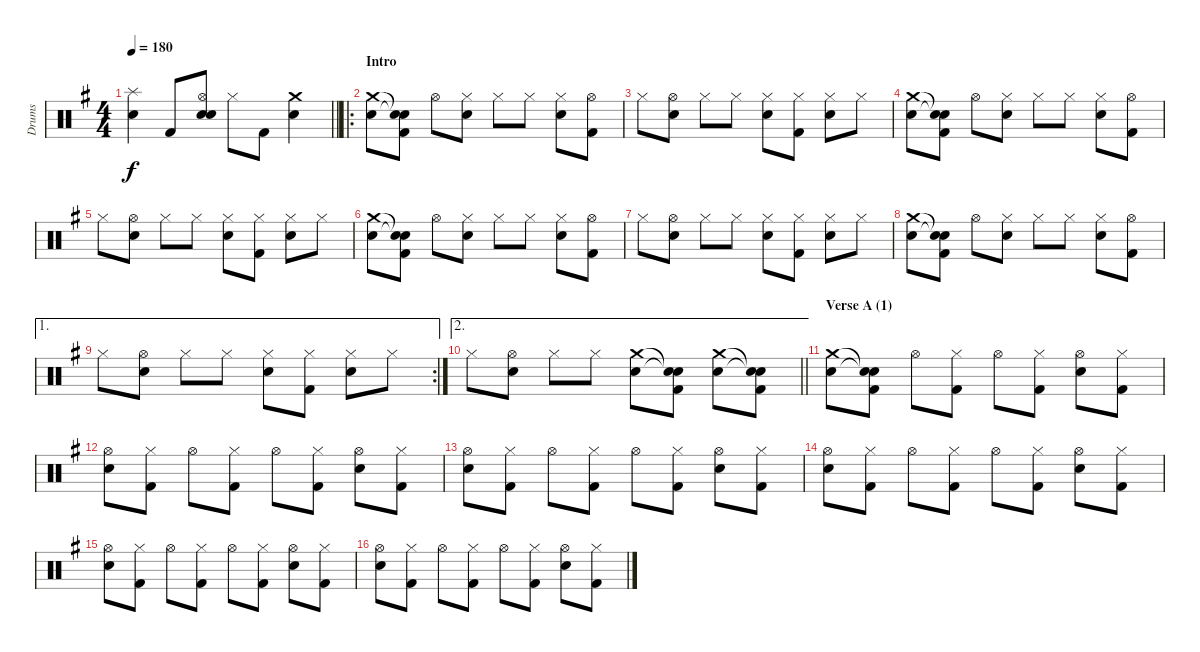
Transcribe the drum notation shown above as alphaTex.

\track ("Drums" "Drums") {instrument percussion}
\staff {score}
\articulation defaults
\ts (4 4)
\tempo 180
\clef neutral
\barLineRight lightlight
\ks g
("Splash (hit)" "Electric Snare (hit)").4{dy f} "Kick (hit) 2".8 ("Hi-Hat (open)" "Electric Snare (hit)" "Snare (hit)").8 "Hi-Hat (closed)".8 "Kick (hit) 2".8 ("Crash medium (hit)" "Electric Snare (hit)").4 |
\ro
\section ("" "Intro")
("Crash medium (hit)" "Electric Snare (hit)").8 ("Snare (hit)"{t} "Snare (hit)"{t} "Kick (hit) 2").8 "Hi-Hat (open)".8 ("Hi-Hat (closed)" "Electric Snare (hit)").8 "Hi-Hat (closed)".8 "Hi-Hat (closed)".8 ("Hi-Hat (closed)" "Electric Snare (hit)").8 ("Hi-Hat (open)" "Kick (hit) 2").8 |
"Hi-Hat (closed)".8 ("Hi-Hat (open)" "Electric Snare (hit)").8 "Hi-Hat (closed)".8 "Hi-Hat (closed)".8 ("Hi-Hat (closed)" "Electric Snare (hit)").8 ("Hi-Hat (closed)" "Kick (hit) 2").8 ("Hi-Hat (closed)" "Electric Snare (hit)").8 "Hi-Hat (closed)".8 |
("Crash medium (hit)" "Electric Snare (hit)").8 ("Snare (hit)"{t} "Snare (hit)"{t} "Kick (hit) 2").8 "Hi-Hat (open)".8 ("Hi-Hat (closed)" "Electric Snare (hit)").8 "Hi-Hat (closed)".8 "Hi-Hat (closed)".8 ("Hi-Hat (closed)" "Electric Snare (hit)").8 ("Hi-Hat (open)" "Kick (hit) 2").8 |
"Hi-Hat (closed)".8 ("Hi-Hat (open)" "Electric Snare (hit)").8 "Hi-Hat (closed)".8 "Hi-Hat (closed)".8 ("Hi-Hat (closed)" "Electric Snare (hit)").8 ("Hi-Hat (closed)" "Kick (hit) 2").8 ("Hi-Hat (closed)" "Electric Snare (hit)").8 "Hi-Hat (closed)".8 |
("Crash medium (hit)" "Electric Snare (hit)").8 ("Snare (hit)"{t} "Snare (hit)"{t} "Kick (hit) 2").8 "Hi-Hat (open)".8 ("Hi-Hat (closed)" "Electric Snare (hit)").8 "Hi-Hat (closed)".8 "Hi-Hat (closed)".8 ("Hi-Hat (closed)" "Electric Snare (hit)").8 ("Hi-Hat (open)" "Kick (hit) 2").8 |
"Hi-Hat (closed)".8 ("Hi-Hat (open)" "Electric Snare (hit)").8 "Hi-Hat (closed)".8 "Hi-Hat (closed)".8 ("Hi-Hat (closed)" "Electric Snare (hit)").8 ("Hi-Hat (closed)" "Kick (hit) 2").8 ("Hi-Hat (closed)" "Electric Snare (hit)").8 "Hi-Hat (closed)".8 |
("Crash medium (hit)" "Electric Snare (hit)").8 ("Snare (hit)"{t} "Snare (hit)"{t} "Kick (hit) 2").8 "Hi-Hat (open)".8 ("Hi-Hat (closed)" "Electric Snare (hit)").8 "Hi-Hat (closed)".8 "Hi-Hat (closed)".8 ("Hi-Hat (closed)" "Electric Snare (hit)").8 ("Hi-Hat (open)" "Kick (hit) 2").8 |
\ae 1
\rc 2 "Hi-Hat (closed)".8
("Hi-Hat (open)" "Electric Snare (hit)").8 "Hi-Hat (closed)".8 "Hi-Hat (closed)".8 ("Hi-Hat (closed)" "Electric Snare (hit)").8 ("Hi-Hat (closed)" "Kick (hit) 2").8 ("Hi-Hat (closed)" "Electric Snare (hit)").8 "Hi-Hat (closed)".8 |
\ae 2
\barLineRight lightlight "Hi-Hat (closed)".8
("Hi-Hat (open)" "Electric Snare (hit)").8 "Hi-Hat (closed)".8 "Hi-Hat (closed)".8 ("Crash medium (hit)" "Electric Snare (hit)").8 ("Snare (hit)"{t} "Snare (hit)"{t} "Kick (hit) 2").8 ("Crash medium (hit)" "Electric Snare (hit)").8 ("Snare (hit)"{t} "Snare (hit)"{t} "Kick (hit) 2").8 |
\section ("" "Verse A (1)")
("Crash medium (hit)" "Electric Snare (hit)").8 ("Snare (hit)"{t} "Snare (hit)"{t} "Kick (hit) 2").8 "Hi-Hat (open)".8 ("Hi-Hat (closed)" "Kick (hit) 2").8 "Hi-Hat (open)".8 ("Hi-Hat (closed)" "Kick (hit) 2").8 ("Hi-Hat (open)" "Electric Snare (hit)").8 ("Hi-Hat (closed)" "Kick (hit) 2").8 |
("Hi-Hat (open)" "Electric Snare (hit)").8 ("Hi-Hat (closed)" "Kick (hit) 2").8 "Hi-Hat (open)".8 ("Hi-Hat (closed)" "Kick (hit) 2").8 "Hi-Hat (open)".8 ("Hi-Hat (closed)" "Kick (hit) 2").8 ("Hi-Hat (open)" "Electric Snare (hit)").8 ("Hi-Hat (closed)" "Kick (hit) 2").8 |
("Hi-Hat (open)" "Electric Snare (hit)").8 ("Hi-Hat (closed)" "Kick (hit) 2").8 "Hi-Hat (open)".8 ("Hi-Hat (closed)" "Kick (hit) 2").8 "Hi-Hat (open)".8 ("Hi-Hat (closed)" "Kick (hit) 2").8 ("Hi-Hat (open)" "Electric Snare (hit)").8 ("Hi-Hat (closed)" "Kick (hit) 2").8 |
("Hi-Hat (open)" "Electric Snare (hit)").8 ("Hi-Hat (closed)" "Kick (hit) 2").8 "Hi-Hat (open)".8 ("Hi-Hat (closed)" "Kick (hit) 2").8 "Hi-Hat (open)".8 ("Hi-Hat (closed)" "Kick (hit) 2").8 ("Hi-Hat (open)" "Electric Snare (hit)").8 ("Hi-Hat (closed)" "Kick (hit) 2").8 |
("Hi-Hat (open)" "Electric Snare (hit)").8 ("Hi-Hat (closed)" "Kick (hit) 2").8 "Hi-Hat (open)".8 ("Hi-Hat (closed)" "Kick (hit) 2").8 "Hi-Hat (open)".8 ("Hi-Hat (closed)" "Kick (hit) 2").8 ("Hi-Hat (open)" "Electric Snare (hit)").8 ("Hi-Hat (closed)" "Kick (hit) 2").8 |
("Hi-Hat (open)" "Electric Snare (hit)").8 ("Hi-Hat (closed)" "Kick (hit) 2").8 "Hi-Hat (open)".8 ("Hi-Hat (closed)" "Kick (hit) 2").8 "Hi-Hat (open)".8 ("Hi-Hat (closed)" "Kick (hit) 2").8 ("Hi-Hat (open)" "Electric Snare (hit)").8 ("Hi-Hat (closed)" "Kick (hit) 2").8
